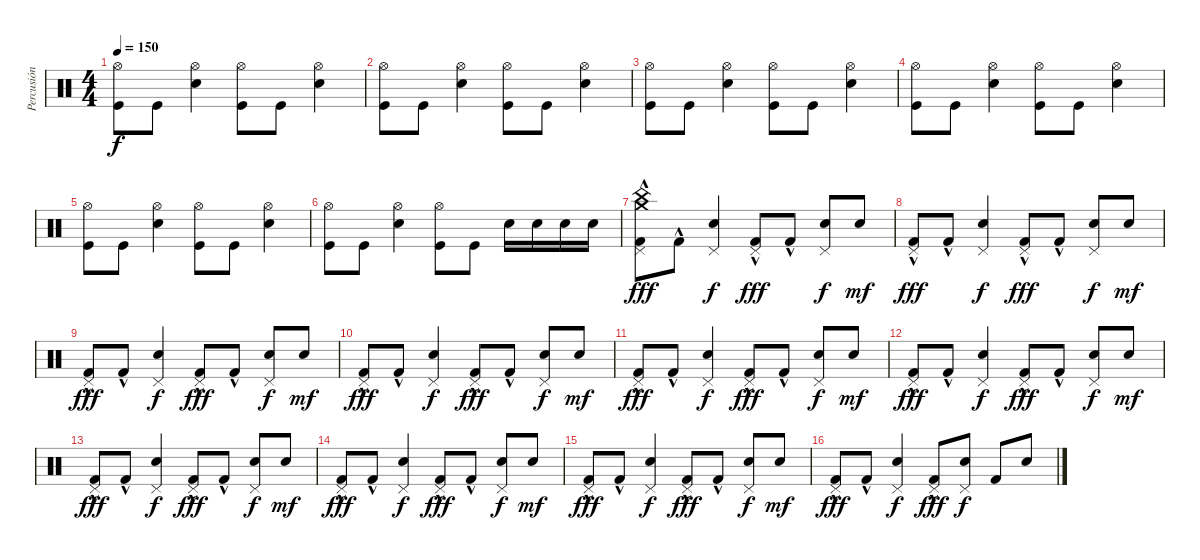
\track ("Percusión" "Percusión") {instrument percussion}
\staff {score}
\articulation defaults
\ts (4 4)
\tempo 150
\clef neutral
\ks c
("Hi-Hat (open)" "Kick (hit)").8{dy f} "Kick (hit)".8 ("Hi-Hat (open)" "Snare (hit) 2").4 ("Hi-Hat (open)" "Kick (hit)").8 "Kick (hit)".8 ("Hi-Hat (open)" "Snare (hit) 2").4 |
("Hi-Hat (open)" "Kick (hit)").8 "Kick (hit)".8 ("Hi-Hat (open)" "Snare (hit) 2").4 ("Hi-Hat (open)" "Kick (hit)").8 "Kick (hit)".8 ("Hi-Hat (open)" "Snare (hit) 2").4 |
("Hi-Hat (open)" "Kick (hit)").8 "Kick (hit)".8 ("Hi-Hat (open)" "Snare (hit) 2").4 ("Hi-Hat (open)" "Kick (hit)").8 "Kick (hit)".8 ("Hi-Hat (open)" "Snare (hit) 2").4 |
("Hi-Hat (open)" "Kick (hit)").8 "Kick (hit)".8 ("Hi-Hat (open)" "Snare (hit) 2").4 ("Hi-Hat (open)" "Kick (hit)").8 "Kick (hit)".8 ("Hi-Hat (open)" "Snare (hit) 2").4 |
("Hi-Hat (open)" "Kick (hit)").8 "Kick (hit)".8 ("Hi-Hat (open)" "Snare (hit) 2").4 ("Hi-Hat (open)" "Kick (hit)").8 "Kick (hit)".8 ("Hi-Hat (open)" "Snare (hit) 2").4 |
("Hi-Hat (open)" "Kick (hit)").8 "Kick (hit)".8 ("Hi-Hat (open)" "Snare (hit) 2").4 ("Hi-Hat (open)" "Kick (hit)").8 "Kick (hit)".8 "Electric Snare (hit)".16 "Electric Snare (hit)".16 "Electric Snare (hit)".16 "Electric Snare (hit)".16 |
("Crash medium (hit)" "Pedal Hi-Hat (hit)" "China (hit)" "Kick (hit) 2"{hac}).8{dy fff} "Kick (hit) 2"{hac}.8 ("Pedal Hi-Hat (hit)" "Electric Snare (hit)").4{dy f} ("Pedal Hi-Hat (hit)" "Kick (hit) 2"{hac}).8{dy fff} "Kick (hit) 2"{hac}.8 ("Pedal Hi-Hat (hit)" "Electric Snare (hit)").8{dy f} "Electric Snare (hit)".8{dy mf} |
("Pedal Hi-Hat (hit)" "Kick (hit) 2"{hac}).8{dy fff} "Kick (hit) 2"{hac}.8 ("Pedal Hi-Hat (hit)" "Electric Snare (hit)").4{dy f} ("Pedal Hi-Hat (hit)" "Kick (hit) 2"{hac}).8{dy fff} "Kick (hit) 2"{hac}.8 ("Pedal Hi-Hat (hit)" "Electric Snare (hit)").8{dy f} "Electric Snare (hit)".8{dy mf} |
("Pedal Hi-Hat (hit)" "Kick (hit) 2"{hac}).8{dy fff} "Kick (hit) 2"{hac}.8 ("Pedal Hi-Hat (hit)" "Electric Snare (hit)").4{dy f} ("Pedal Hi-Hat (hit)" "Kick (hit) 2"{hac}).8{dy fff} "Kick (hit) 2"{hac}.8 ("Pedal Hi-Hat (hit)" "Electric Snare (hit)").8{dy f} "Electric Snare (hit)".8{dy mf} |
("Pedal Hi-Hat (hit)" "Kick (hit) 2"{hac}).8{dy fff} "Kick (hit) 2"{hac}.8 ("Pedal Hi-Hat (hit)" "Electric Snare (hit)").4{dy f} ("Pedal Hi-Hat (hit)" "Kick (hit) 2"{hac}).8{dy fff} "Kick (hit) 2"{hac}.8 ("Pedal Hi-Hat (hit)" "Electric Snare (hit)").8{dy f} "Electric Snare (hit)".8{dy mf} |
("Pedal Hi-Hat (hit)" "Kick (hit) 2"{hac}).8{dy fff} "Kick (hit) 2"{hac}.8 ("Pedal Hi-Hat (hit)" "Electric Snare (hit)").4{dy f} ("Pedal Hi-Hat (hit)" "Kick (hit) 2"{hac}).8{dy fff} "Kick (hit) 2"{hac}.8 ("Pedal Hi-Hat (hit)" "Electric Snare (hit)").8{dy f} "Electric Snare (hit)".8{dy mf} |
("Pedal Hi-Hat (hit)" "Kick (hit) 2"{hac}).8{dy fff} "Kick (hit) 2"{hac}.8 ("Pedal Hi-Hat (hit)" "Electric Snare (hit)").4{dy f} ("Pedal Hi-Hat (hit)" "Kick (hit) 2"{hac}).8{dy fff} "Kick (hit) 2"{hac}.8 ("Pedal Hi-Hat (hit)" "Electric Snare (hit)").8{dy f} "Electric Snare (hit)".8{dy mf} |
("Pedal Hi-Hat (hit)" "Kick (hit) 2"{hac}).8{dy fff} "Kick (hit) 2"{hac}.8 ("Pedal Hi-Hat (hit)" "Electric Snare (hit)").4{dy f} ("Pedal Hi-Hat (hit)" "Kick (hit) 2"{hac}).8{dy fff} "Kick (hit) 2"{hac}.8 ("Pedal Hi-Hat (hit)" "Electric Snare (hit)").8{dy f} "Electric Snare (hit)".8{dy mf} |
("Pedal Hi-Hat (hit)" "Kick (hit) 2"{hac}).8{dy fff} "Kick (hit) 2"{hac}.8 ("Pedal Hi-Hat (hit)" "Electric Snare (hit)").4{dy f} ("Pedal Hi-Hat (hit)" "Kick (hit) 2"{hac}).8{dy fff} "Kick (hit) 2"{hac}.8 ("Pedal Hi-Hat (hit)" "Electric Snare (hit)").8{dy f} "Electric Snare (hit)".8{dy mf} |
("Pedal Hi-Hat (hit)" "Kick (hit) 2"{hac}).8{dy fff} "Kick (hit) 2"{hac}.8 ("Pedal Hi-Hat (hit)" "Electric Snare (hit)").4{dy f} ("Pedal Hi-Hat (hit)" "Kick (hit) 2"{hac}).8{dy fff} "Kick (hit) 2"{hac}.8 ("Pedal Hi-Hat (hit)" "Electric Snare (hit)").8{dy f} "Electric Snare (hit)".8{dy mf} |
("Pedal Hi-Hat (hit)" "Kick (hit) 2"{hac}).8{dy fff} "Kick (hit) 2"{hac}.8 ("Pedal Hi-Hat (hit)" "Electric Snare (hit)").4{dy f} ("Pedal Hi-Hat (hit)" "Kick (hit) 2"{hac}).8{dy fff} ("Pedal Hi-Hat (hit)" "Electric Snare (hit)").8{dy f} "Kick (hit) 2".8 "Electric Snare (hit)".8
